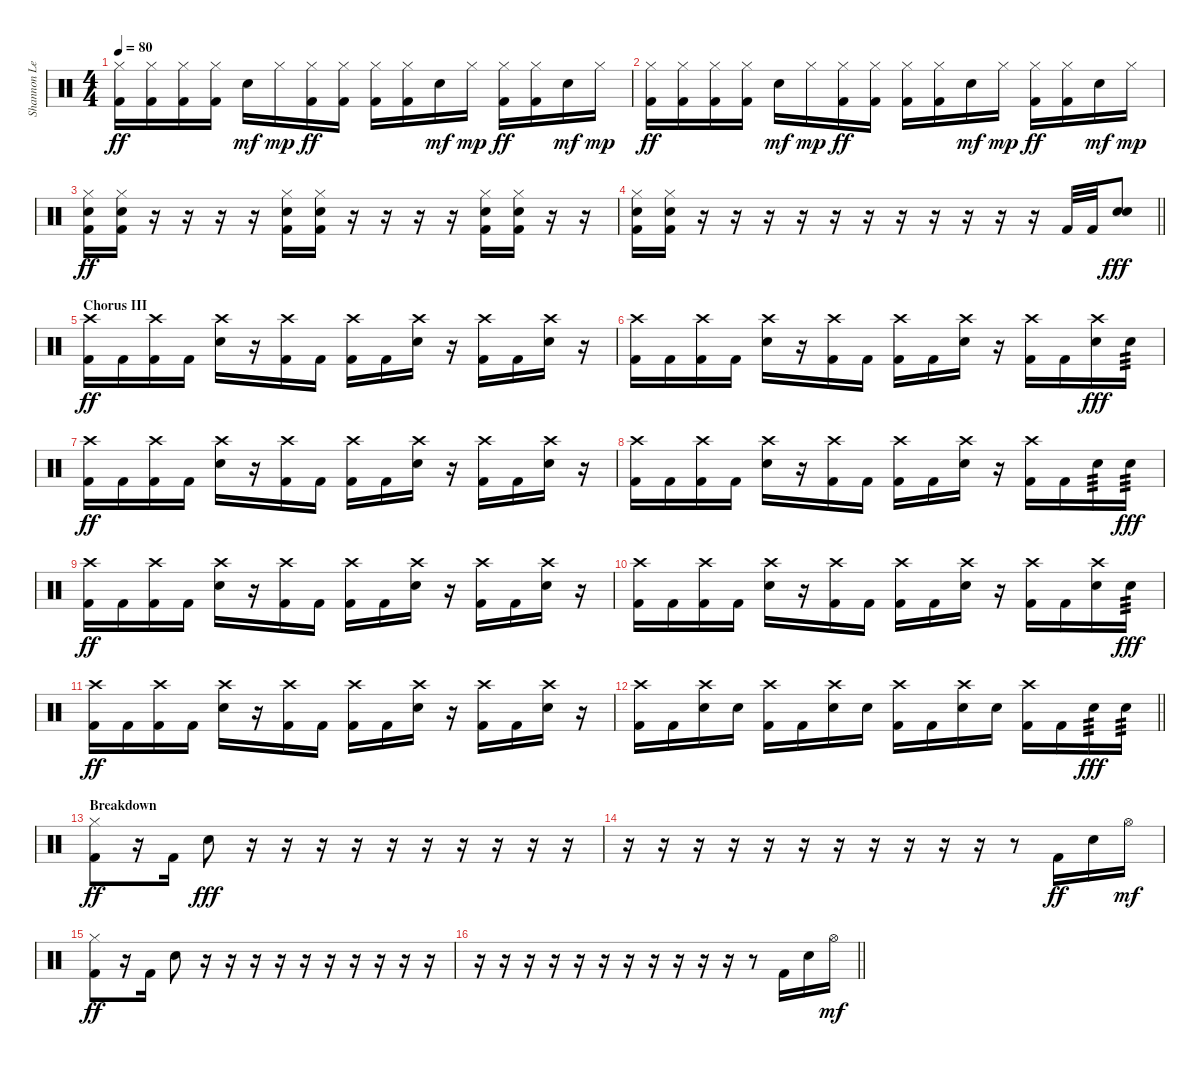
\track ("Shannon Leto (Drums)" "Shannon Le") {instrument percussion}
\staff {score}
\articulation defaults
\ts (4 4)
\tempo 80
\clef neutral
\ks c
("Hi-Hat (closed)" "Kick (hit) 2").16{dy ff} ("Hi-Hat (closed)" "Kick (hit) 2").16 ("Hi-Hat (closed)" "Kick (hit) 2").16 ("Hi-Hat (closed)" "Kick (hit) 2").16 "Snare (hit) 2".16{dy mf} "Hi-Hat (closed)".16{dy mp} ("Hi-Hat (closed)" "Kick (hit) 2").16{dy ff} ("Hi-Hat (closed)" "Kick (hit) 2").16 ("Hi-Hat (closed)" "Kick (hit) 2").16 ("Hi-Hat (closed)" "Kick (hit) 2").16 "Snare (hit) 2".16{dy mf} "Hi-Hat (closed)".16{dy mp} ("Hi-Hat (closed)" "Kick (hit) 2").16{dy ff} ("Hi-Hat (closed)" "Kick (hit) 2").16 "Snare (hit) 2".16{dy mf} "Hi-Hat (closed)".16{dy mp} |
("Hi-Hat (closed)" "Kick (hit) 2").16{dy ff} ("Hi-Hat (closed)" "Kick (hit) 2").16 ("Hi-Hat (closed)" "Kick (hit) 2").16 ("Hi-Hat (closed)" "Kick (hit) 2").16 "Snare (hit) 2".16{dy mf} "Hi-Hat (closed)".16{dy mp} ("Hi-Hat (closed)" "Kick (hit) 2").16{dy ff} ("Hi-Hat (closed)" "Kick (hit) 2").16 ("Hi-Hat (closed)" "Kick (hit) 2").16 ("Hi-Hat (closed)" "Kick (hit) 2").16 "Snare (hit) 2".16{dy mf} "Hi-Hat (closed)".16{dy mp} ("Hi-Hat (closed)" "Kick (hit) 2").16{dy ff} ("Hi-Hat (closed)" "Kick (hit) 2").16 "Snare (hit) 2".16{dy mf} "Hi-Hat (closed)".16{dy mp} |
("Hi-Hat (closed)" "Snare (hit) 2" "Kick (hit) 2").16{dy ff} ("Hi-Hat (closed)" "Snare (hit) 2" "Kick (hit) 2").16 r.16 r.16 r.16 r.16 ("Hi-Hat (closed)" "Snare (hit) 2" "Kick (hit) 2").16 ("Hi-Hat (closed)" "Snare (hit) 2" "Kick (hit) 2").16 r.16 r.16 r.16 r.16 ("Hi-Hat (closed)" "Snare (hit) 2" "Kick (hit) 2").16 ("Hi-Hat (closed)" "Snare (hit) 2" "Kick (hit) 2").16 r.16 r.16 |
\barLineRight lightlight
("Hi-Hat (closed)" "Snare (hit) 2" "Kick (hit) 2").16 ("Hi-Hat (closed)" "Snare (hit) 2" "Kick (hit) 2").16 r.16 r.16 r.16 r.16 r.16 r.16 r.16 r.16 r.16 r.16 r.16 "Kick (hit) 2".32 "Kick (hit) 2".32 ("Snare (hit) 2" "Snare (hit) 2").8{bd 240 dy fff} |
\section ("" "Chorus III")
("Crash high (hit)" "Kick (hit) 2").16{dy ff} "Kick (hit) 2".16 ("Crash high (hit)" "Kick (hit) 2").16 "Kick (hit) 2".16 ("Crash high (hit)" "Snare (hit) 2").16 r.16 ("Crash high (hit)" "Kick (hit) 2").16 "Kick (hit) 2".16 ("Crash high (hit)" "Kick (hit) 2").16 "Kick (hit) 2".16 ("Crash high (hit)" "Snare (hit) 2").16 r.16 ("Crash high (hit)" "Kick (hit) 2").16 "Kick (hit) 2".16 ("Crash high (hit)" "Snare (hit) 2").16 r.16 |
("Crash high (hit)" "Kick (hit) 2").16 "Kick (hit) 2".16 ("Crash high (hit)" "Kick (hit) 2").16 "Kick (hit) 2".16 ("Crash high (hit)" "Snare (hit) 2").16 r.16 ("Crash high (hit)" "Kick (hit) 2").16 "Kick (hit) 2".16 ("Crash high (hit)" "Kick (hit) 2").16 "Kick (hit) 2".16 ("Crash high (hit)" "Snare (hit) 2").16 r.16 ("Crash high (hit)" "Kick (hit) 2").16 "Kick (hit) 2".16 ("Crash high (hit)" "Snare (hit) 2").16{dy fff} "Snare (hit) 2".16{tp 3} |
("Crash high (hit)" "Kick (hit) 2").16{dy ff} "Kick (hit) 2".16 ("Crash high (hit)" "Kick (hit) 2").16 "Kick (hit) 2".16 ("Crash high (hit)" "Snare (hit) 2").16 r.16 ("Crash high (hit)" "Kick (hit) 2").16 "Kick (hit) 2".16 ("Crash high (hit)" "Kick (hit) 2").16 "Kick (hit) 2".16 ("Crash high (hit)" "Snare (hit) 2").16 r.16 ("Crash high (hit)" "Kick (hit) 2").16 "Kick (hit) 2".16 ("Crash high (hit)" "Snare (hit) 2").16 r.16 |
("Crash high (hit)" "Kick (hit) 2").16 "Kick (hit) 2".16 ("Crash high (hit)" "Kick (hit) 2").16 "Kick (hit) 2".16 ("Crash high (hit)" "Snare (hit) 2").16 r.16 ("Crash high (hit)" "Kick (hit) 2").16 "Kick (hit) 2".16 ("Crash high (hit)" "Kick (hit) 2").16 "Kick (hit) 2".16 ("Crash high (hit)" "Snare (hit) 2").16 r.16 ("Crash high (hit)" "Kick (hit) 2").16 "Kick (hit) 2".16 "Snare (hit) 2".16{tp 3} "Snare (hit) 2".16{tp 3 dy fff} |
("Crash high (hit)" "Kick (hit) 2").16{dy ff} "Kick (hit) 2".16 ("Crash high (hit)" "Kick (hit) 2").16 "Kick (hit) 2".16 ("Crash high (hit)" "Snare (hit) 2").16 r.16 ("Crash high (hit)" "Kick (hit) 2").16 "Kick (hit) 2".16 ("Crash high (hit)" "Kick (hit) 2").16 "Kick (hit) 2".16 ("Crash high (hit)" "Snare (hit) 2").16 r.16 ("Crash high (hit)" "Kick (hit) 2").16 "Kick (hit) 2".16 ("Crash high (hit)" "Snare (hit) 2").16 r.16 |
("Crash high (hit)" "Kick (hit) 2").16 "Kick (hit) 2".16 ("Crash high (hit)" "Kick (hit) 2").16 "Kick (hit) 2".16 ("Crash high (hit)" "Snare (hit) 2").16 r.16 ("Crash high (hit)" "Kick (hit) 2").16 "Kick (hit) 2".16 ("Crash high (hit)" "Kick (hit) 2").16 "Kick (hit) 2".16 ("Crash high (hit)" "Snare (hit) 2").16 r.16 ("Crash high (hit)" "Kick (hit) 2").16 "Kick (hit) 2".16 ("Crash high (hit)" "Snare (hit) 2").16 "Snare (hit) 2".16{tp 3 dy fff} |
("Crash high (hit)" "Kick (hit) 2").16{dy ff} "Kick (hit) 2".16 ("Crash high (hit)" "Kick (hit) 2").16 "Kick (hit) 2".16 ("Crash high (hit)" "Snare (hit) 2").16 r.16 ("Crash high (hit)" "Kick (hit) 2").16 "Kick (hit) 2".16 ("Crash high (hit)" "Kick (hit) 2").16 "Kick (hit) 2".16 ("Crash high (hit)" "Snare (hit) 2").16 r.16 ("Crash high (hit)" "Kick (hit) 2").16 "Kick (hit) 2".16 ("Crash high (hit)" "Snare (hit) 2").16 r.16 |
\barLineRight lightlight
("Crash high (hit)" "Kick (hit) 2").16 "Kick (hit) 2".16 ("Crash high (hit)" "Snare (hit) 2").16 "Snare (hit) 2".16 ("Crash high (hit)" "Kick (hit) 2").16 "Kick (hit) 2".16 ("Crash high (hit)" "Snare (hit) 2").16 "Snare (hit) 2".16 ("Crash high (hit)" "Kick (hit) 2").16 "Kick (hit) 2".16 ("Crash high (hit)" "Snare (hit) 2").16 "Snare (hit) 2".16 ("Crash high (hit)" "Kick (hit) 2").16 "Kick (hit) 2".16 "Snare (hit) 2".16{tp 3 dy fff} "Snare (hit) 2".16{tp 3} |
\section ("" "Breakdown")
("Hi-Hat (closed)" "Kick (hit) 2").8{dy ff} r.16 "Kick (hit) 2".16 "Snare (hit) 2".8{dy fff} r.16 r.16 r.16 r.16 r.16 r.16 r.16 r.16 r.16 r.16 |
r.16 r.16 r.16 r.16 r.16 r.16 r.16 r.16 r.16 r.16 r.16 r.8 "Kick (hit) 2".16{dy ff} "Snare (hit) 2".16 "Hi-Hat (open)".16{dy mf} |
("Hi-Hat (closed)" "Kick (hit) 2").8{dy ff} r.16 "Kick (hit) 2".16 "Snare (hit) 2".8 r.16 r.16 r.16 r.16 r.16 r.16 r.16 r.16 r.16 r.16 |
\barLineRight lightlight
r.16 r.16 r.16 r.16 r.16 r.16 r.16 r.16 r.16 r.16 r.16 r.8 "Kick (hit) 2".16 "Snare (hit) 2".16 "Hi-Hat (open)".16{dy mf}
